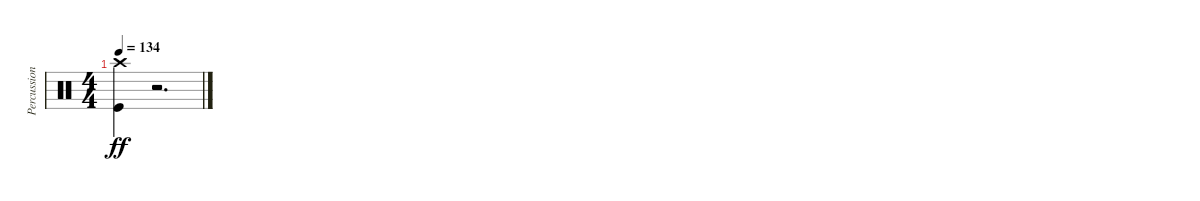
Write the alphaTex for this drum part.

\track ("Percussion" "Percussion") {instrument percussion}
\staff {score}
\articulation defaults
\ts (4 4)
\tempo 134
\clef neutral
\ks c
("Kick (hit)" "Crash high (hit)").4{dy ff} r.2{d}
